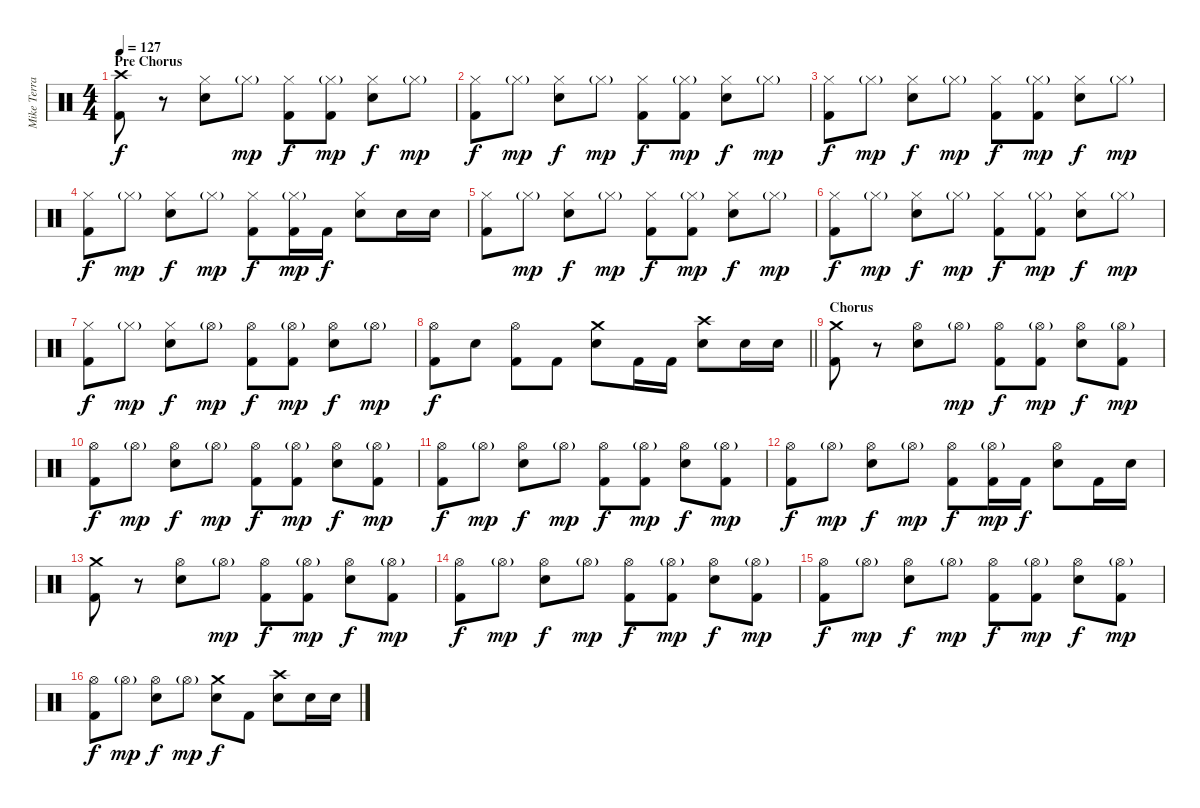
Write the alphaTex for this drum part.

\track ("Mike Terrana" "Mike Terra") {instrument percussion}
\staff {score}
\articulation defaults
\ts (4 4)
\section ("" "Pre Chorus")
\tempo 127
\clef neutral
\ks c
("Crash high (hit)" "Kick (hit) 2").8{dy f} r.8 ("Hi-Hat (closed)" "Snare (hit) 2").8 "Hi-Hat (closed)"{g}.8{dy mp} ("Hi-Hat (closed)" "Kick (hit) 2").8{dy f} ("Hi-Hat (closed)"{g} "Kick (hit) 2").8{dy mp} ("Hi-Hat (closed)" "Snare (hit) 2").8{dy f} "Hi-Hat (closed)"{g}.8{dy mp} |
("Hi-Hat (closed)" "Kick (hit) 2").8{dy f} "Hi-Hat (closed)"{g}.8{dy mp} ("Hi-Hat (closed)" "Snare (hit) 2").8{dy f} "Hi-Hat (closed)"{g}.8{dy mp} ("Hi-Hat (closed)" "Kick (hit) 2").8{dy f} ("Hi-Hat (closed)"{g} "Kick (hit) 2").8{dy mp} ("Hi-Hat (closed)" "Snare (hit) 2").8{dy f} "Hi-Hat (closed)"{g}.8{dy mp} |
("Hi-Hat (closed)" "Kick (hit) 2").8{dy f} "Hi-Hat (closed)"{g}.8{dy mp} ("Hi-Hat (closed)" "Snare (hit) 2").8{dy f} "Hi-Hat (closed)"{g}.8{dy mp} ("Hi-Hat (closed)" "Kick (hit) 2").8{dy f} ("Hi-Hat (closed)"{g} "Kick (hit) 2").8{dy mp} ("Hi-Hat (closed)" "Snare (hit) 2").8{dy f} "Hi-Hat (closed)"{g}.8{dy mp} |
("Hi-Hat (closed)" "Kick (hit) 2").8{dy f} "Hi-Hat (closed)"{g}.8{dy mp} ("Hi-Hat (closed)" "Snare (hit) 2").8{dy f} "Hi-Hat (closed)"{g}.8{dy mp} ("Hi-Hat (closed)" "Kick (hit) 2").8{dy f} ("Hi-Hat (closed)"{g} "Kick (hit) 2").16{dy mp} "Kick (hit) 2".16{dy f} ("Hi-Hat (closed)" "Snare (hit) 2").8 "Snare (hit) 2".16 "Snare (hit) 2".16 |
("Hi-Hat (closed)" "Kick (hit) 2").8 "Hi-Hat (closed)"{g}.8{dy mp} ("Hi-Hat (closed)" "Snare (hit) 2").8{dy f} "Hi-Hat (closed)"{g}.8{dy mp} ("Hi-Hat (closed)" "Kick (hit) 2").8{dy f} ("Hi-Hat (closed)"{g} "Kick (hit) 2").8{dy mp} ("Hi-Hat (closed)" "Snare (hit) 2").8{dy f} "Hi-Hat (closed)"{g}.8{dy mp} |
("Hi-Hat (closed)" "Kick (hit) 2").8{dy f} "Hi-Hat (closed)"{g}.8{dy mp} ("Hi-Hat (closed)" "Snare (hit) 2").8{dy f} "Hi-Hat (closed)"{g}.8{dy mp} ("Hi-Hat (closed)" "Kick (hit) 2").8{dy f} ("Hi-Hat (closed)"{g} "Kick (hit) 2").8{dy mp} ("Hi-Hat (closed)" "Snare (hit) 2").8{dy f} "Hi-Hat (closed)"{g}.8{dy mp} |
("Hi-Hat (closed)" "Kick (hit) 2").8{dy f} "Hi-Hat (closed)"{g}.8{dy mp} ("Hi-Hat (closed)" "Snare (hit) 2").8{dy f} "Hi-Hat (open)"{g}.8{dy mp} ("Hi-Hat (open)" "Kick (hit) 2").8{dy f} ("Hi-Hat (open)"{g} "Kick (hit) 2").8{dy mp} ("Hi-Hat (open)" "Snare (hit) 2").8{dy f} "Hi-Hat (open)"{g}.8{dy mp} |
\barLineRight lightlight
("Hi-Hat (open)" "Kick (hit) 2").8{dy f} "Snare (hit) 2".8 ("Hi-Hat (open)" "Kick (hit) 2").8 "Kick (hit) 2".8 ("Crash medium (hit)" "Snare (hit) 2").8 "Kick (hit) 2".16 "Kick (hit) 2".16 ("Crash high (hit)" "Snare (hit) 2").8 "Snare (hit) 2".16 "Snare (hit) 2".16 |
\section ("" "Chorus")
("Crash medium (hit)" "Kick (hit) 2").8 r.8 ("Hi-Hat (open)" "Snare (hit) 2").8 "Hi-Hat (open)"{g}.8{dy mp} ("Hi-Hat (open)" "Kick (hit) 2").8{dy f} ("Hi-Hat (open)"{g} "Kick (hit) 2").8{dy mp} ("Hi-Hat (open)" "Snare (hit) 2").8{dy f} ("Hi-Hat (open)"{g} "Kick (hit) 2").8{dy mp} |
("Hi-Hat (open)" "Kick (hit) 2").8{dy f} "Hi-Hat (open)"{g}.8{dy mp} ("Hi-Hat (open)" "Snare (hit) 2").8{dy f} "Hi-Hat (open)"{g}.8{dy mp} ("Hi-Hat (open)" "Kick (hit) 2").8{dy f} ("Hi-Hat (open)"{g} "Kick (hit) 2").8{dy mp} ("Hi-Hat (open)" "Snare (hit) 2").8{dy f} ("Hi-Hat (open)"{g} "Kick (hit) 2").8{dy mp} |
("Hi-Hat (open)" "Kick (hit) 2").8{dy f} "Hi-Hat (open)"{g}.8{dy mp} ("Hi-Hat (open)" "Snare (hit) 2").8{dy f} "Hi-Hat (open)"{g}.8{dy mp} ("Hi-Hat (open)" "Kick (hit) 2").8{dy f} ("Hi-Hat (open)"{g} "Kick (hit) 2").8{dy mp} ("Hi-Hat (open)" "Snare (hit) 2").8{dy f} ("Hi-Hat (open)"{g} "Kick (hit) 2").8{dy mp} |
("Hi-Hat (open)" "Kick (hit) 2").8{dy f} "Hi-Hat (open)"{g}.8{dy mp} ("Hi-Hat (open)" "Snare (hit) 2").8{dy f} "Hi-Hat (open)"{g}.8{dy mp} ("Hi-Hat (open)" "Kick (hit) 2").8{dy f} ("Hi-Hat (open)"{g} "Kick (hit) 2").16{dy mp} "Kick (hit) 2".16{dy f} ("Hi-Hat (open)" "Snare (hit) 2").8 "Kick (hit) 2".16 "Snare (hit) 2".16 |
("Crash medium (hit)" "Kick (hit) 2").8 r.8 ("Hi-Hat (open)" "Snare (hit) 2").8 "Hi-Hat (open)"{g}.8{dy mp} ("Hi-Hat (open)" "Kick (hit) 2").8{dy f} ("Hi-Hat (open)"{g} "Kick (hit) 2").8{dy mp} ("Hi-Hat (open)" "Snare (hit) 2").8{dy f} ("Hi-Hat (open)"{g} "Kick (hit) 2").8{dy mp} |
("Hi-Hat (open)" "Kick (hit) 2").8{dy f} "Hi-Hat (open)"{g}.8{dy mp} ("Hi-Hat (open)" "Snare (hit) 2").8{dy f} "Hi-Hat (open)"{g}.8{dy mp} ("Hi-Hat (open)" "Kick (hit) 2").8{dy f} ("Hi-Hat (open)"{g} "Kick (hit) 2").8{dy mp} ("Hi-Hat (open)" "Snare (hit) 2").8{dy f} ("Hi-Hat (open)"{g} "Kick (hit) 2").8{dy mp} |
("Hi-Hat (open)" "Kick (hit) 2").8{dy f} "Hi-Hat (open)"{g}.8{dy mp} ("Hi-Hat (open)" "Snare (hit) 2").8{dy f} "Hi-Hat (open)"{g}.8{dy mp} ("Hi-Hat (open)" "Kick (hit) 2").8{dy f} ("Hi-Hat (open)"{g} "Kick (hit) 2").8{dy mp} ("Hi-Hat (open)" "Snare (hit) 2").8{dy f} ("Hi-Hat (open)"{g} "Kick (hit) 2").8{dy mp} |
("Hi-Hat (open)" "Kick (hit) 2").8{dy f} "Hi-Hat (open)"{g}.8{dy mp} ("Hi-Hat (open)" "Snare (hit) 2").8{dy f} "Hi-Hat (open)"{g}.8{dy mp} ("Crash medium (hit)" "Snare (hit) 2").8{dy f} "Kick (hit) 2".8 ("Crash high (hit)" "Snare (hit) 2").8 "Snare (hit) 2".16 "Snare (hit) 2".16
